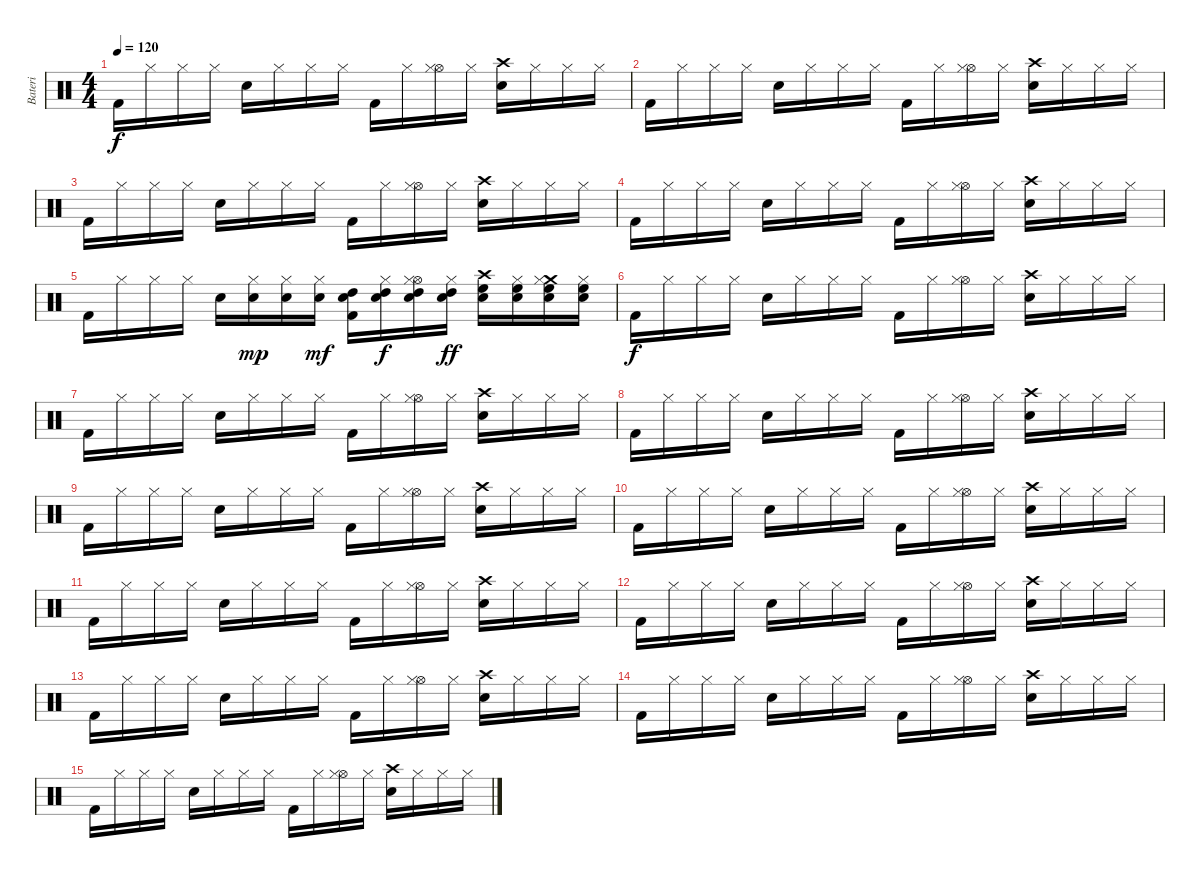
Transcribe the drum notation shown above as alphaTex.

\track ("Bateri" "Bateri") {instrument percussion}
\staff {score}
\articulation defaults
\ts (4 4)
\tempo 120
\clef neutral
\ks c "Kick (hit) 2".16{dy f} "Hi-Hat (closed)".16 "Hi-Hat (closed)".16 "Hi-Hat (closed)".16 "Electric Snare (hit)".16 "Hi-Hat (closed)".16 "Hi-Hat (closed)".16 "Hi-Hat (closed)".16 "Kick (hit) 2".16 "Hi-Hat (closed)".16
("Hi-Hat (open)" "Hi-Hat (closed)").16 "Hi-Hat (closed)".16 ("Crash high (hit)" "Electric Snare (hit)").16 "Hi-Hat (closed)".16 "Hi-Hat (closed)".16 "Hi-Hat (closed)".16 |
"Kick (hit) 2".16 "Hi-Hat (closed)".16 "Hi-Hat (closed)".16 "Hi-Hat (closed)".16 "Electric Snare (hit)".16 "Hi-Hat (closed)".16 "Hi-Hat (closed)".16 "Hi-Hat (closed)".16 "Kick (hit) 2".16 "Hi-Hat (closed)".16 ("Hi-Hat (open)" "Hi-Hat (closed)").16 "Hi-Hat (closed)".16 ("Crash high (hit)" "Electric Snare (hit)").16 "Hi-Hat (closed)".16 "Hi-Hat (closed)".16 "Hi-Hat (closed)".16 |
"Kick (hit) 2".16 "Hi-Hat (closed)".16 "Hi-Hat (closed)".16 "Hi-Hat (closed)".16 "Electric Snare (hit)".16 "Hi-Hat (closed)".16 "Hi-Hat (closed)".16 "Hi-Hat (closed)".16 "Kick (hit) 2".16 "Hi-Hat (closed)".16 ("Hi-Hat (open)" "Hi-Hat (closed)").16 "Hi-Hat (closed)".16 ("Crash high (hit)" "Electric Snare (hit)").16 "Hi-Hat (closed)".16 "Hi-Hat (closed)".16 "Hi-Hat (closed)".16 |
"Kick (hit) 2".16 "Hi-Hat (closed)".16 "Hi-Hat (closed)".16 "Hi-Hat (closed)".16 "Electric Snare (hit)".16 "Hi-Hat (closed)".16 "Hi-Hat (closed)".16 "Hi-Hat (closed)".16 "Kick (hit) 2".16 "Hi-Hat (closed)".16 ("Hi-Hat (open)" "Hi-Hat (closed)").16 "Hi-Hat (closed)".16 ("Crash high (hit)" "Electric Snare (hit)").16 "Hi-Hat (closed)".16 "Hi-Hat (closed)".16 "Hi-Hat (closed)".16 |
"Kick (hit) 2".16 "Hi-Hat (closed)".16 "Hi-Hat (closed)".16 "Hi-Hat (closed)".16 "Electric Snare (hit)".16 ("Hi-Hat (closed)" "Electric Snare (hit)").16{dy mp} ("Hi-Hat (closed)" "Electric Snare (hit)").16 ("Hi-Hat (closed)" "Electric Snare (hit)").16{dy mf} ("Kick (hit) 2" "Electric Snare (hit)" "High Tom (hit)").16 ("Hi-Hat (closed)" "Electric Snare (hit)" "High Tom (hit)").16{dy f} ("Hi-Hat (open)" "Hi-Hat (closed)" "Electric Snare (hit)" "High Tom (hit)").16 ("Hi-Hat (closed)" "Electric Snare (hit)" "High Tom (hit)").16{dy ff} ("Crash high (hit)" "Electric Snare (hit)" "High Floor Tom (hit)").16 ("Electric Snare (hit)" "Hi-Hat (closed)" "High Floor Tom (hit)").16 ("Crash medium (hit)" "Hi-Hat (closed)" "High Floor Tom (hit)" "Electric Snare (hit)").16 ("Electric Snare (hit)" "Hi-Hat (closed)" "High Floor Tom (hit)").16 |
"Kick (hit) 2".16{dy f} "Hi-Hat (closed)".16 "Hi-Hat (closed)".16 "Hi-Hat (closed)".16 "Electric Snare (hit)".16 "Hi-Hat (closed)".16 "Hi-Hat (closed)".16 "Hi-Hat (closed)".16 "Kick (hit) 2".16 "Hi-Hat (closed)".16 ("Hi-Hat (open)" "Hi-Hat (closed)").16 "Hi-Hat (closed)".16 ("Crash high (hit)" "Electric Snare (hit)").16 "Hi-Hat (closed)".16 "Hi-Hat (closed)".16 "Hi-Hat (closed)".16 |
"Kick (hit) 2".16 "Hi-Hat (closed)".16 "Hi-Hat (closed)".16 "Hi-Hat (closed)".16 "Electric Snare (hit)".16 "Hi-Hat (closed)".16 "Hi-Hat (closed)".16 "Hi-Hat (closed)".16 "Kick (hit) 2".16 "Hi-Hat (closed)".16 ("Hi-Hat (open)" "Hi-Hat (closed)").16 "Hi-Hat (closed)".16 ("Crash high (hit)" "Electric Snare (hit)").16 "Hi-Hat (closed)".16 "Hi-Hat (closed)".16 "Hi-Hat (closed)".16 |
"Kick (hit) 2".16 "Hi-Hat (closed)".16 "Hi-Hat (closed)".16 "Hi-Hat (closed)".16 "Electric Snare (hit)".16 "Hi-Hat (closed)".16 "Hi-Hat (closed)".16 "Hi-Hat (closed)".16 "Kick (hit) 2".16 "Hi-Hat (closed)".16 ("Hi-Hat (open)" "Hi-Hat (closed)").16 "Hi-Hat (closed)".16 ("Crash high (hit)" "Electric Snare (hit)").16 "Hi-Hat (closed)".16 "Hi-Hat (closed)".16 "Hi-Hat (closed)".16 |
"Kick (hit) 2".16 "Hi-Hat (closed)".16 "Hi-Hat (closed)".16 "Hi-Hat (closed)".16 "Electric Snare (hit)".16 "Hi-Hat (closed)".16 "Hi-Hat (closed)".16 "Hi-Hat (closed)".16 "Kick (hit) 2".16 "Hi-Hat (closed)".16 ("Hi-Hat (open)" "Hi-Hat (closed)").16 "Hi-Hat (closed)".16 ("Crash high (hit)" "Electric Snare (hit)").16 "Hi-Hat (closed)".16 "Hi-Hat (closed)".16 "Hi-Hat (closed)".16 |
"Kick (hit) 2".16 "Hi-Hat (closed)".16 "Hi-Hat (closed)".16 "Hi-Hat (closed)".16 "Electric Snare (hit)".16 "Hi-Hat (closed)".16 "Hi-Hat (closed)".16 "Hi-Hat (closed)".16 "Kick (hit) 2".16 "Hi-Hat (closed)".16 ("Hi-Hat (open)" "Hi-Hat (closed)").16 "Hi-Hat (closed)".16 ("Crash high (hit)" "Electric Snare (hit)").16 "Hi-Hat (closed)".16 "Hi-Hat (closed)".16 "Hi-Hat (closed)".16 |
"Kick (hit) 2".16 "Hi-Hat (closed)".16 "Hi-Hat (closed)".16 "Hi-Hat (closed)".16 "Electric Snare (hit)".16 "Hi-Hat (closed)".16 "Hi-Hat (closed)".16 "Hi-Hat (closed)".16 "Kick (hit) 2".16 "Hi-Hat (closed)".16 ("Hi-Hat (open)" "Hi-Hat (closed)").16 "Hi-Hat (closed)".16 ("Crash high (hit)" "Electric Snare (hit)").16 "Hi-Hat (closed)".16 "Hi-Hat (closed)".16 "Hi-Hat (closed)".16 |
"Kick (hit) 2".16 "Hi-Hat (closed)".16 "Hi-Hat (closed)".16 "Hi-Hat (closed)".16 "Electric Snare (hit)".16 "Hi-Hat (closed)".16 "Hi-Hat (closed)".16 "Hi-Hat (closed)".16 "Kick (hit) 2".16 "Hi-Hat (closed)".16 ("Hi-Hat (open)" "Hi-Hat (closed)").16 "Hi-Hat (closed)".16 ("Crash high (hit)" "Electric Snare (hit)").16 "Hi-Hat (closed)".16 "Hi-Hat (closed)".16 "Hi-Hat (closed)".16 |
"Kick (hit) 2".16 "Hi-Hat (closed)".16 "Hi-Hat (closed)".16 "Hi-Hat (closed)".16 "Electric Snare (hit)".16 "Hi-Hat (closed)".16 "Hi-Hat (closed)".16 "Hi-Hat (closed)".16 "Kick (hit) 2".16 "Hi-Hat (closed)".16 ("Hi-Hat (open)" "Hi-Hat (closed)").16 "Hi-Hat (closed)".16 ("Crash high (hit)" "Electric Snare (hit)").16 "Hi-Hat (closed)".16 "Hi-Hat (closed)".16 "Hi-Hat (closed)".16 |
"Kick (hit) 2".16{volume 0} "Hi-Hat (closed)".16 "Hi-Hat (closed)".16 "Hi-Hat (closed)".16 "Electric Snare (hit)".16 "Hi-Hat (closed)".16 "Hi-Hat (closed)".16 "Hi-Hat (closed)".16 "Kick (hit) 2".16 "Hi-Hat (closed)".16 ("Hi-Hat (open)" "Hi-Hat (closed)").16 "Hi-Hat (closed)".16 ("Crash high (hit)" "Electric Snare (hit)").16 "Hi-Hat (closed)".16 "Hi-Hat (closed)".16 "Hi-Hat (closed)".16 |
"Kick (hit) 2".16 "Hi-Hat (closed)".16 "Hi-Hat (closed)".16 "Hi-Hat (closed)".16 "Electric Snare (hit)".16 "Hi-Hat (closed)".16 "Hi-Hat (closed)".16 "Hi-Hat (closed)".16 "Kick (hit) 2".16 "Hi-Hat (closed)".16 ("Hi-Hat (open)" "Hi-Hat (closed)").16 "Hi-Hat (closed)".16 ("Crash high (hit)" "Electric Snare (hit)").16 "Hi-Hat (closed)".16 "Hi-Hat (closed)".16 "Hi-Hat (closed)".16
